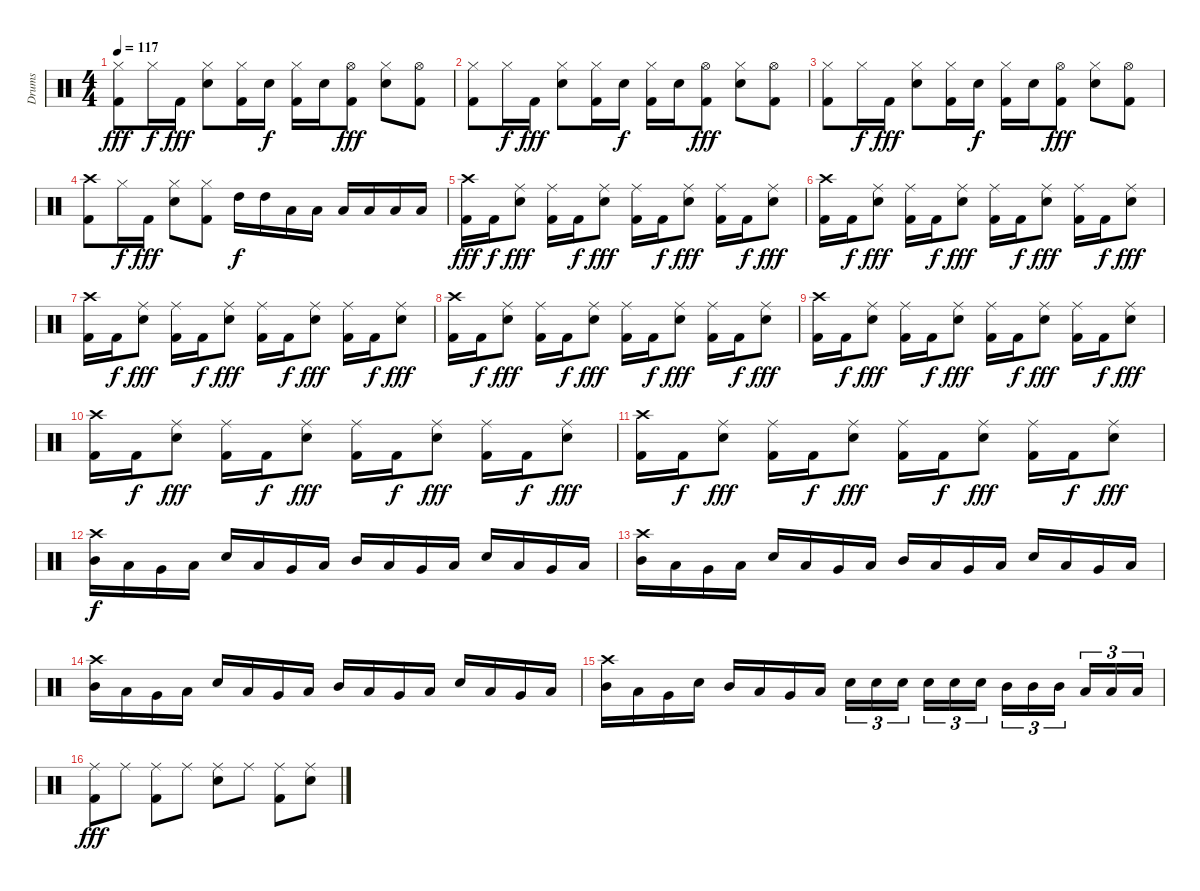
\track ("Drums" "Drums") {instrument percussion}
\staff {score}
\articulation defaults
\ts (4 4)
\tempo 117
\clef neutral
\ks c
("Hi-Hat (closed)" "Kick (hit) 2").8{dy fff} "Hi-Hat (closed)".16{dy f} "Kick (hit) 2".16{dy fff} ("Hi-Hat (closed)" "Snare (hit) 2").8 ("Hi-Hat (closed)" "Kick (hit) 2").16 "Snare (hit) 2".16{dy f} ("Hi-Hat (closed)" "Kick (hit) 2").16 "Snare (hit) 2".16 ("Hi-Hat (open)" "Kick (hit) 2").8{dy fff} ("Hi-Hat (closed)" "Snare (hit) 2").8 ("Hi-Hat (open)" "Kick (hit) 2").8 |
("Hi-Hat (closed)" "Kick (hit) 2").8 "Hi-Hat (closed)".16{dy f} "Kick (hit) 2".16{dy fff} ("Hi-Hat (closed)" "Snare (hit) 2").8 ("Hi-Hat (closed)" "Kick (hit) 2").16 "Snare (hit) 2".16{dy f} ("Hi-Hat (closed)" "Kick (hit) 2").16 "Snare (hit) 2".16 ("Hi-Hat (open)" "Kick (hit) 2").8{dy fff} ("Hi-Hat (closed)" "Snare (hit) 2").8 ("Hi-Hat (open)" "Kick (hit) 2").8 |
("Hi-Hat (closed)" "Kick (hit) 2").8 "Hi-Hat (closed)".16{dy f} "Kick (hit) 2".16{dy fff} ("Hi-Hat (closed)" "Snare (hit) 2").8 ("Hi-Hat (closed)" "Kick (hit) 2").16 "Snare (hit) 2".16{dy f} ("Hi-Hat (closed)" "Kick (hit) 2").16 "Snare (hit) 2".16 ("Hi-Hat (open)" "Kick (hit) 2").8{dy fff} ("Hi-Hat (closed)" "Snare (hit) 2").8 ("Hi-Hat (open)" "Kick (hit) 2").8 |
("Crash high (hit)" "Kick (hit) 2").8 "Hi-Hat (closed)".16{dy f} "Kick (hit) 2".16{dy fff} ("Hi-Hat (closed)" "Snare (hit) 2").8 ("Hi-Hat (closed)" "Kick (hit) 2").8 "High Tom (hit)".16{dy f} "High Tom (hit)".16 "Low Tom (hit)".16 "Low Tom (hit)".16 "Low Floor Tom (hit)".16 "Low Floor Tom (hit)".16 "Low Floor Tom (hit)".16 "Low Floor Tom (hit)".16 |
("Crash high (hit)" "Kick (hit) 2").16{dy fff} "Kick (hit) 2".16{dy f} ("Ride (middle)" "Snare (hit) 2").8{dy fff} ("Ride (middle)" "Kick (hit) 2").16 "Kick (hit) 2".16{dy f} ("Ride (middle)" "Snare (hit) 2").8{dy fff} ("Ride (middle)" "Kick (hit) 2").16 "Kick (hit) 2".16{dy f} ("Ride (middle)" "Snare (hit) 2").8{dy fff} ("Ride (middle)" "Kick (hit) 2").16 "Kick (hit) 2".16{dy f} ("Ride (middle)" "Snare (hit) 2").8{dy fff} |
("Crash high (hit)" "Kick (hit) 2").16 "Kick (hit) 2".16{dy f} ("Ride (middle)" "Snare (hit) 2").8{dy fff} ("Ride (middle)" "Kick (hit) 2").16 "Kick (hit) 2".16{dy f} ("Ride (middle)" "Snare (hit) 2").8{dy fff} ("Ride (middle)" "Kick (hit) 2").16 "Kick (hit) 2".16{dy f} ("Ride (middle)" "Snare (hit) 2").8{dy fff} ("Ride (middle)" "Kick (hit) 2").16 "Kick (hit) 2".16{dy f} ("Ride (middle)" "Snare (hit) 2").8{dy fff} |
("Crash high (hit)" "Kick (hit) 2").16 "Kick (hit) 2".16{dy f} ("Ride (middle)" "Snare (hit) 2").8{dy fff} ("Ride (middle)" "Kick (hit) 2").16 "Kick (hit) 2".16{dy f} ("Ride (middle)" "Snare (hit) 2").8{dy fff} ("Ride (middle)" "Kick (hit) 2").16 "Kick (hit) 2".16{dy f} ("Ride (middle)" "Snare (hit) 2").8{dy fff} ("Ride (middle)" "Kick (hit) 2").16 "Kick (hit) 2".16{dy f} ("Ride (middle)" "Snare (hit) 2").8{dy fff} |
("Crash high (hit)" "Kick (hit) 2").16 "Kick (hit) 2".16{dy f} ("Ride (middle)" "Snare (hit) 2").8{dy fff} ("Ride (middle)" "Kick (hit) 2").16 "Kick (hit) 2".16{dy f} ("Ride (middle)" "Snare (hit) 2").8{dy fff} ("Ride (middle)" "Kick (hit) 2").16 "Kick (hit) 2".16{dy f} ("Ride (middle)" "Snare (hit) 2").8{dy fff} ("Ride (middle)" "Kick (hit) 2").16 "Kick (hit) 2".16{dy f} ("Ride (middle)" "Snare (hit) 2").8{dy fff} |
("Crash high (hit)" "Kick (hit) 2").16 "Kick (hit) 2".16{dy f} ("Ride (middle)" "Snare (hit) 2").8{dy fff} ("Ride (middle)" "Kick (hit) 2").16 "Kick (hit) 2".16{dy f} ("Ride (middle)" "Snare (hit) 2").8{dy fff} ("Ride (middle)" "Kick (hit) 2").16 "Kick (hit) 2".16{dy f} ("Ride (middle)" "Snare (hit) 2").8{dy fff} ("Ride (middle)" "Kick (hit) 2").16 "Kick (hit) 2".16{dy f} ("Ride (middle)" "Snare (hit) 2").8{dy fff} |
("Crash high (hit)" "Kick (hit) 2").16 "Kick (hit) 2".16{dy f} ("Ride (middle)" "Snare (hit) 2").8{dy fff} ("Ride (middle)" "Kick (hit) 2").16 "Kick (hit) 2".16{dy f} ("Ride (middle)" "Snare (hit) 2").8{dy fff} ("Ride (middle)" "Kick (hit) 2").16 "Kick (hit) 2".16{dy f} ("Ride (middle)" "Snare (hit) 2").8{dy fff} ("Ride (middle)" "Kick (hit) 2").16 "Kick (hit) 2".16{dy f} ("Ride (middle)" "Snare (hit) 2").8{dy fff} |
("Crash high (hit)" "Kick (hit) 2").16 "Kick (hit) 2".16{dy f} ("Ride (middle)" "Snare (hit) 2").8{dy fff} ("Ride (middle)" "Kick (hit) 2").16 "Kick (hit) 2".16{dy f} ("Ride (middle)" "Snare (hit) 2").8{dy fff} ("Ride (middle)" "Kick (hit) 2").16 "Kick (hit) 2".16{dy f} ("Ride (middle)" "Snare (hit) 2").8{dy fff} ("Ride (middle)" "Kick (hit) 2").16 "Kick (hit) 2".16{dy f} ("Ride (middle)" "Snare (hit) 2").8{dy fff} |
("Crash high (hit)" "Mid Tom (hit)").16{dy f volume 16} "Low Tom (hit)".16 "Very Low Tom (hit)".16 "Low Floor Tom (hit)".16 "Snare (hit) 2".16 "Low Tom (hit)".16 "Very Low Tom (hit)".16 "Low Floor Tom (hit)".16 "Mid Tom (hit)".16 "Low Tom (hit)".16 "Very Low Tom (hit)".16 "Low Floor Tom (hit)".16 "Snare (hit) 2".16 "Low Tom (hit)".16 "Very Low Tom (hit)".16 "Low Floor Tom (hit)".16 |
("Crash high (hit)" "Mid Tom (hit)").16{volume 16} "Low Tom (hit)".16 "Very Low Tom (hit)".16 "Low Floor Tom (hit)".16 "Snare (hit) 2".16 "Low Tom (hit)".16 "Very Low Tom (hit)".16 "Low Floor Tom (hit)".16 "Mid Tom (hit)".16 "Low Tom (hit)".16 "Very Low Tom (hit)".16 "Low Floor Tom (hit)".16 "Snare (hit) 2".16 "Low Tom (hit)".16 "Very Low Tom (hit)".16 "Low Floor Tom (hit)".16 |
("Crash high (hit)" "Mid Tom (hit)").16{volume 16} "Low Tom (hit)".16 "Very Low Tom (hit)".16 "Low Floor Tom (hit)".16 "Snare (hit) 2".16 "Low Tom (hit)".16 "Very Low Tom (hit)".16 "Low Floor Tom (hit)".16 "Mid Tom (hit)".16 "Low Tom (hit)".16 "Very Low Tom (hit)".16 "Low Floor Tom (hit)".16 "Snare (hit) 2".16 "Low Tom (hit)".16 "Very Low Tom (hit)".16 "Low Floor Tom (hit)".16 |
("Crash high (hit)" "Mid Tom (hit)").16{volume 16} "Low Tom (hit)".16 "Very Low Tom (hit)".16 "Snare (hit) 2".16 "Mid Tom (hit)".16 "Low Tom (hit)".16 "Very Low Tom (hit)".16 "Low Floor Tom (hit)".16 "Snare (hit) 2".16{tu (3 2)} "Snare (hit) 2".16{tu (3 2)} "Snare (hit) 2".16{tu (3 2) beam splitsecondary} "Snare (hit) 2".16{tu (3 2)} "Snare (hit) 2".16{tu (3 2)} "Snare (hit) 2".16{tu (3 2)} "Mid Tom (hit)".16{tu (3 2)} "Mid Tom (hit)".16{tu (3 2)} "Mid Tom (hit)".16{tu (3 2) beam splitsecondary} "Low Tom (hit)".16{tu (3 2)} "Low Tom (hit)".16{tu (3 2)} "Low Tom (hit)".16{tu (3 2)} |
("Ride (middle)" "Kick (hit) 2").8{dy fff} "Ride (middle)".8 ("Ride (middle)" "Kick (hit) 2").8 "Ride (middle)".8 ("Ride (middle)" "Snare (hit) 2").8 "Ride (middle)".8 ("Ride (middle)" "Kick (hit) 2").8 ("Ride (middle)" "Snare (hit) 2").8
